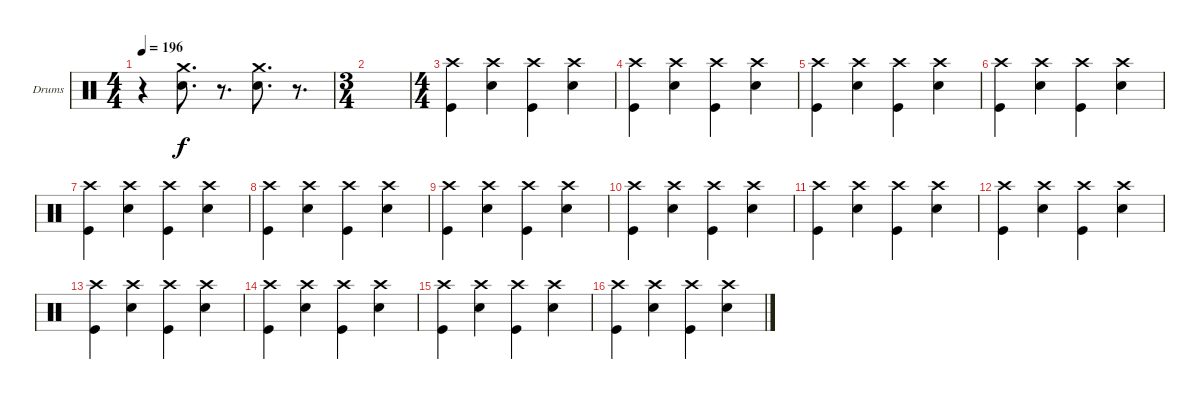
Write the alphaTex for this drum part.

\defaultSystemsLayout 4
\bracketExtendMode groupsimilarinstruments
\firstSystemTrackNameOrientation horizontal
\otherSystemsTrackNameOrientation horizontal
\track ("Lars Ulrich (Drum)" "Drums") {instrument percussion}
\staff {score}
\articulation defaults
\ts (4 4)
\tempo 196
\clef neutral
\scale
0.262911
\ks c
r.4{dy f} ("Crash medium (hit)" "Snare (hit) 2").8{d} r.8{d} ("Crash medium (hit)" "Snare (hit) 2").8{d} r.8{d} |
\ts (3 4)
\scale
0.474178 |
\ts (4 4)
\scale
0.474178 ("Crash high (hit)" "Kick (hit)").4 ("Crash high (hit)" "Snare (hit) 2").4 ("Crash high (hit)" "Kick (hit)").4 ("Crash high (hit)" "Snare (hit) 2").4 |
\scale
0.262911 ("Crash high (hit)" "Kick (hit)").4 ("Crash high (hit)" "Snare (hit) 2").4 ("Crash high (hit)" "Kick (hit)").4 ("Crash high (hit)" "Snare (hit) 2").4 |
\scale
0.262911 ("Crash high (hit)" "Kick (hit)").4 ("Crash high (hit)" "Snare (hit) 2").4 ("Crash high (hit)" "Kick (hit)").4 ("Crash high (hit)" "Snare (hit) 2").4 |
\scale
0.333333 ("Crash high (hit)" "Kick (hit)").4 ("Crash high (hit)" "Snare (hit) 2").4 ("Crash high (hit)" "Kick (hit)").4 ("Crash high (hit)" "Snare (hit) 2").4 |
\scale
0.333333 ("Crash high (hit)" "Kick (hit)").4 ("Crash high (hit)" "Snare (hit) 2").4 ("Crash high (hit)" "Kick (hit)").4 ("Crash high (hit)" "Snare (hit) 2").4 |
\scale
0.333333 ("Crash high (hit)" "Kick (hit)").4 ("Crash high (hit)" "Snare (hit) 2").4 ("Crash high (hit)" "Kick (hit)").4 ("Crash high (hit)" "Snare (hit) 2").4 |
\scale
0.333333 ("Crash high (hit)" "Kick (hit)").4 ("Crash high (hit)" "Snare (hit) 2").4 ("Crash high (hit)" "Kick (hit)").4 ("Crash high (hit)" "Snare (hit) 2").4 |
\scale
0.333333 ("Crash high (hit)" "Kick (hit)").4 ("Crash high (hit)" "Snare (hit) 2").4 ("Crash high (hit)" "Kick (hit)").4 ("Crash high (hit)" "Snare (hit) 2").4 |
\scale
0.333333 ("Crash high (hit)" "Kick (hit)").4 ("Crash high (hit)" "Snare (hit) 2").4 ("Crash high (hit)" "Kick (hit)").4 ("Crash high (hit)" "Snare (hit) 2").4 |
\scale
0.333333 ("Crash high (hit)" "Kick (hit)").4 ("Crash high (hit)" "Snare (hit) 2").4 ("Crash high (hit)" "Kick (hit)").4 ("Crash high (hit)" "Snare (hit) 2").4 |
\scale
0.333333 ("Crash high (hit)" "Kick (hit)").4 ("Crash high (hit)" "Snare (hit) 2").4 ("Crash high (hit)" "Kick (hit)").4 ("Crash high (hit)" "Snare (hit) 2").4 |
\scale
0.333333 ("Crash high (hit)" "Kick (hit)").4 ("Crash high (hit)" "Snare (hit) 2").4 ("Crash high (hit)" "Kick (hit)").4 ("Crash high (hit)" "Snare (hit) 2").4 |
\scale
0.333333 ("Crash high (hit)" "Kick (hit)").4 ("Crash high (hit)" "Snare (hit) 2").4 ("Crash high (hit)" "Kick (hit)").4 ("Crash high (hit)" "Snare (hit) 2").4 |
\scale
0.333333 ("Crash high (hit)" "Kick (hit)").4 ("Crash high (hit)" "Snare (hit) 2").4 ("Crash high (hit)" "Kick (hit)").4 ("Crash high (hit)" "Snare (hit) 2").4
